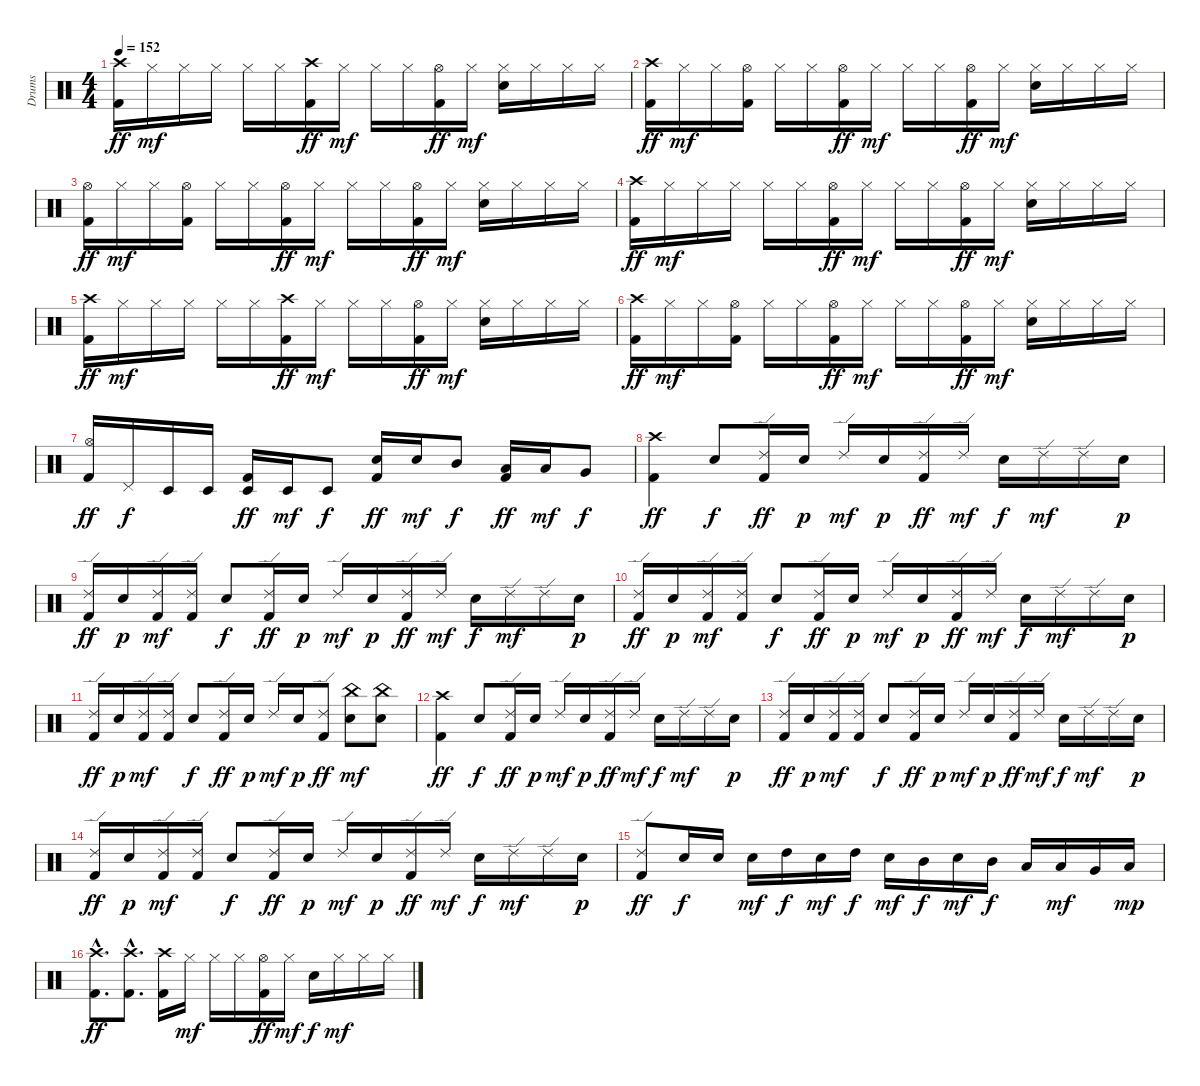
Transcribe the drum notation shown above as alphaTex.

\track ("Drums" "Drums") {instrument percussion}
\staff {score}
\articulation defaults
\ts (4 4)
\tempo 152
\clef neutral
\ks c
("Crash high (hit)" "Kick (hit) 2").16{dy ff} "Hi-Hat (closed)".16{dy mf} "Hi-Hat (closed)".16 "Hi-Hat (closed)".16 "Hi-Hat (closed)".16 "Hi-Hat (closed)".16 ("Crash high (hit)" "Kick (hit) 2").16{dy ff} "Hi-Hat (closed)".16{dy mf} "Hi-Hat (closed)".16 "Hi-Hat (closed)".16 ("Hi-Hat (open)" "Kick (hit) 2").16{dy ff} "Hi-Hat (closed)".16{dy mf} ("Hi-Hat (closed)" "Snare (hit) 2").16 "Hi-Hat (closed)".16 "Hi-Hat (closed)".16 "Hi-Hat (closed)".16 |
("Crash high (hit)" "Kick (hit) 2").16{dy ff} "Hi-Hat (closed)".16{dy mf} "Hi-Hat (closed)".16 ("Hi-Hat (open)" "Kick (hit) 2").16 "Hi-Hat (closed)".16 "Hi-Hat (closed)".16 ("Hi-Hat (open)" "Kick (hit) 2").16{dy ff} "Hi-Hat (closed)".16{dy mf} "Hi-Hat (closed)".16 "Hi-Hat (closed)".16 ("Hi-Hat (open)" "Kick (hit) 2").16{dy ff} "Hi-Hat (closed)".16{dy mf} ("Hi-Hat (closed)" "Snare (hit) 2").16 "Hi-Hat (closed)".16 "Hi-Hat (closed)".16 "Hi-Hat (closed)".16 |
("Hi-Hat (open)" "Kick (hit) 2").16{dy ff} "Hi-Hat (closed)".16{dy mf} "Hi-Hat (closed)".16 ("Hi-Hat (open)" "Kick (hit) 2").16 "Hi-Hat (closed)".16 "Hi-Hat (closed)".16 ("Hi-Hat (open)" "Kick (hit) 2").16{dy ff} "Hi-Hat (closed)".16{dy mf} "Hi-Hat (closed)".16 "Hi-Hat (closed)".16 ("Hi-Hat (open)" "Kick (hit) 2").16{dy ff} "Hi-Hat (closed)".16{dy mf} ("Hi-Hat (closed)" "Snare (hit) 2").16 "Hi-Hat (closed)".16 "Hi-Hat (closed)".16 "Hi-Hat (closed)".16 |
("Crash high (hit)" "Kick (hit) 2").16{dy ff} "Hi-Hat (closed)".16{dy mf} "Hi-Hat (closed)".16 "Hi-Hat (closed)".16 "Hi-Hat (closed)".16 "Hi-Hat (closed)".16 ("Hi-Hat (open)" "Kick (hit) 2").16{dy ff} "Hi-Hat (closed)".16{dy mf} "Hi-Hat (closed)".16 "Hi-Hat (closed)".16 ("Hi-Hat (open)" "Kick (hit) 2").16{dy ff} "Hi-Hat (closed)".16{dy mf} ("Hi-Hat (closed)" "Snare (hit) 2").16 "Hi-Hat (closed)".16 "Hi-Hat (closed)".16 "Hi-Hat (closed)".16 |
("Crash high (hit)" "Kick (hit) 2").16{dy ff} "Hi-Hat (closed)".16{dy mf} "Hi-Hat (closed)".16 "Hi-Hat (closed)".16 "Hi-Hat (closed)".16 "Hi-Hat (closed)".16 ("Crash high (hit)" "Kick (hit) 2").16{dy ff} "Hi-Hat (closed)".16{dy mf} "Hi-Hat (closed)".16 "Hi-Hat (closed)".16 ("Hi-Hat (open)" "Kick (hit) 2").16{dy ff} "Hi-Hat (closed)".16{dy mf} ("Hi-Hat (closed)" "Snare (hit) 2").16 "Hi-Hat (closed)".16 "Hi-Hat (closed)".16 "Hi-Hat (closed)".16 |
("Crash high (hit)" "Kick (hit) 2").16{dy ff} "Hi-Hat (closed)".16{dy mf} "Hi-Hat (closed)".16 ("Hi-Hat (open)" "Kick (hit) 2").16 "Hi-Hat (closed)".16 "Hi-Hat (closed)".16 ("Hi-Hat (open)" "Kick (hit) 2").16{dy ff} "Hi-Hat (closed)".16{dy mf} "Hi-Hat (closed)".16 "Hi-Hat (closed)".16 ("Hi-Hat (open)" "Kick (hit) 2").16{dy ff} "Hi-Hat (closed)".16{dy mf} ("Hi-Hat (closed)" "Snare (hit) 2").16 "Hi-Hat (closed)".16 "Hi-Hat (closed)".16 "Hi-Hat (closed)".16 |
("Hi-Hat (open)" "Kick (hit) 2").16{dy ff} "Pedal Hi-Hat (hit)".16{dy f} "Timbale low (hit)".16 "Timbale low (hit)".16 ("Timbale low (hit)" "Kick (hit) 2").16{dy ff} "Timbale low (hit)".16{dy mf} "Timbale low (hit)".8{dy f} ("Snare (hit) 2" "Kick (hit) 2").16{dy ff} "Snare (hit) 2".16{dy mf} "Mid Tom (hit)".8{dy f} ("Low Tom (hit)" "Kick (hit) 2").16{dy ff} "Low Tom (hit)".16{dy mf} "Very Low Tom (hit)".8{dy f} |
("Crash high (hit)" "Kick (hit) 2").4{dy ff} "Snare (hit) 2".8{dy f} ("Ride (edge) 2" "Kick (hit) 2").16{dy ff} "Snare (hit) 2".16{dy p} "Ride (edge) 2".16{dy mf} "Snare (hit) 2".16{dy p} ("Ride (edge) 2" "Kick (hit) 2").16{dy ff} "Ride (edge) 2".16{dy mf} "Snare (hit) 2".16{dy f} "Ride (edge) 2".16{dy mf} "Ride (edge) 2".16 "Snare (hit) 2".16{dy p} |
("Ride (edge) 2" "Kick (hit) 2").16{dy ff} "Snare (hit) 2".16{dy p} ("Ride (edge) 2" "Kick (hit) 2").16{dy mf} ("Ride (edge) 2" "Kick (hit) 2").16 "Snare (hit) 2".8{dy f} ("Ride (edge) 2" "Kick (hit) 2").16{dy ff} "Snare (hit) 2".16{dy p} "Ride (edge) 2".16{dy mf} "Snare (hit) 2".16{dy p} ("Ride (edge) 2" "Kick (hit) 2").16{dy ff} "Ride (edge) 2".16{dy mf} "Snare (hit) 2".16{dy f} "Ride (edge) 2".16{dy mf} "Ride (edge) 2".16 "Snare (hit) 2".16{dy p} |
("Ride (edge) 2" "Kick (hit) 2").16{dy ff} "Snare (hit) 2".16{dy p} ("Ride (edge) 2" "Kick (hit) 2").16{dy mf} ("Ride (edge) 2" "Kick (hit) 2").16 "Snare (hit) 2".8{dy f} ("Ride (edge) 2" "Kick (hit) 2").16{dy ff} "Snare (hit) 2".16{dy p} "Ride (edge) 2".16{dy mf} "Snare (hit) 2".16{dy p} ("Ride (edge) 2" "Kick (hit) 2").16{dy ff} "Ride (edge) 2".16{dy mf} "Snare (hit) 2".16{dy f} "Ride (edge) 2".16{dy mf} "Ride (edge) 2".16 "Snare (hit) 2".16{dy p} |
("Ride (edge) 2" "Kick (hit) 2").16{dy ff} "Snare (hit) 2".16{dy p} ("Ride (edge) 2" "Kick (hit) 2").16{dy mf} ("Ride (edge) 2" "Kick (hit) 2").16 "Snare (hit) 2".8{dy f} ("Ride (edge) 2" "Kick (hit) 2").16{dy ff} "Snare (hit) 2".16{dy p} "Ride (edge) 2".16{dy mf} "Snare (hit) 2".16{dy p} ("Ride (edge) 2" "Kick (hit) 2").8{dy ff} ("China (hit)" "Snare (hit) 2").8{dy mf} ("China (hit)" "Snare (hit) 2").8 |
("Crash high (hit)" "Kick (hit) 2").4{dy ff} "Snare (hit) 2".8{dy f} ("Ride (edge) 2" "Kick (hit) 2").16{dy ff} "Snare (hit) 2".16{dy p} "Ride (edge) 2".16{dy mf} "Snare (hit) 2".16{dy p} ("Ride (edge) 2" "Kick (hit) 2").16{dy ff} "Ride (edge) 2".16{dy mf} "Snare (hit) 2".16{dy f} "Ride (edge) 2".16{dy mf} "Ride (edge) 2".16 "Snare (hit) 2".16{dy p} |
("Ride (edge) 2" "Kick (hit) 2").16{dy ff} "Snare (hit) 2".16{dy p} ("Ride (edge) 2" "Kick (hit) 2").16{dy mf} ("Ride (edge) 2" "Kick (hit) 2").16 "Snare (hit) 2".8{dy f} ("Ride (edge) 2" "Kick (hit) 2").16{dy ff} "Snare (hit) 2".16{dy p} "Ride (edge) 2".16{dy mf} "Snare (hit) 2".16{dy p} ("Ride (edge) 2" "Kick (hit) 2").16{dy ff} "Ride (edge) 2".16{dy mf} "Snare (hit) 2".16{dy f} "Ride (edge) 2".16{dy mf} "Ride (edge) 2".16 "Snare (hit) 2".16{dy p} |
("Ride (edge) 2" "Kick (hit) 2").16{dy ff} "Snare (hit) 2".16{dy p} ("Ride (edge) 2" "Kick (hit) 2").16{dy mf} ("Ride (edge) 2" "Kick (hit) 2").16 "Snare (hit) 2".8{dy f} ("Ride (edge) 2" "Kick (hit) 2").16{dy ff} "Snare (hit) 2".16{dy p} "Ride (edge) 2".16{dy mf} "Snare (hit) 2".16{dy p} ("Ride (edge) 2" "Kick (hit) 2").16{dy ff} "Ride (edge) 2".16{dy mf} "Snare (hit) 2".16{dy f} "Ride (edge) 2".16{dy mf} "Ride (edge) 2".16 "Snare (hit) 2".16{dy p} |
("Ride (edge) 2" "Kick (hit) 2").8{dy ff} "Snare (hit) 2".16{dy f} "Snare (hit) 2".16 "Snare (hit) 2".16{dy mf} "High Tom (hit)".16{dy f} "Snare (hit) 2".16{dy mf} "High Tom (hit)".16{dy f} "Snare (hit) 2".16{dy mf} "Mid Tom (hit)".16{dy f} "Snare (hit) 2".16{dy mf} "Mid Tom (hit)".16{dy f} "Low Tom (hit)".16 "Low Tom (hit)".16{dy mf} "Very Low Tom (hit)".16 "Low Floor Tom (hit)".16{dy mp} |
("Crash high (hit)"{hac} "Kick (hit) 2"{hac}).8{d dy ff} ("Crash high (hit)"{hac} "Kick (hit) 2"{hac}).8{d} ("Crash high (hit)" "Kick (hit) 2").16 "Hi-Hat (closed)".16{dy mf} "Hi-Hat (closed)".16 "Hi-Hat (closed)".16 ("Hi-Hat (open)" "Kick (hit) 2").16{dy ff} "Hi-Hat (closed)".16{dy mf} "Snare (hit) 2".16{dy f} "Hi-Hat (closed)".16{dy mf} "Hi-Hat (closed)".16 "Hi-Hat (closed)".16
